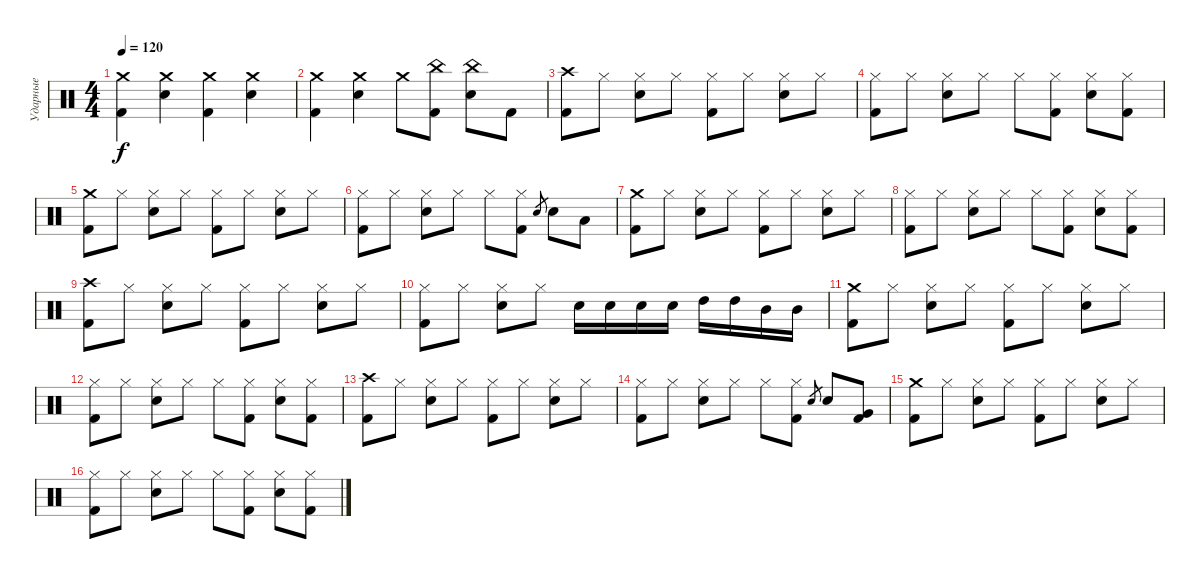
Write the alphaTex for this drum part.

\track ("Ударные" "Ударные") {instrument percussion}
\staff {score}
\articulation defaults
\ts (4 4)
\tempo 120
\clef neutral
\ks c
("Crash medium (hit)" "Kick (hit) 2").4{dy f} ("Crash medium (hit)" "Electric Snare (hit)").4 ("Crash medium (hit)" "Kick (hit) 2").4 ("Crash medium (hit)" "Electric Snare (hit)").4 |
("Crash medium (hit)" "Kick (hit) 2").4 ("Crash medium (hit)" "Electric Snare (hit)").4 "Crash medium (hit)".8 ("China (hit)" "Kick (hit) 2").8 ("China (hit)" "Electric Snare (hit)").8 "Kick (hit) 2".8 |
("Crash high (hit)" "Kick (hit) 2").8 "Hi-Hat (closed)".8 ("Hi-Hat (closed)" "Electric Snare (hit)").8 "Hi-Hat (closed)".8 ("Hi-Hat (closed)" "Kick (hit) 2").8 "Hi-Hat (closed)".8 ("Hi-Hat (closed)" "Electric Snare (hit)").8 "Hi-Hat (closed)".8 |
("Hi-Hat (closed)" "Kick (hit) 2").8 "Hi-Hat (closed)".8 ("Hi-Hat (closed)" "Electric Snare (hit)").8 "Hi-Hat (closed)".8 "Hi-Hat (closed)".8 ("Hi-Hat (closed)" "Kick (hit) 2").8 ("Hi-Hat (closed)" "Electric Snare (hit)").8 ("Hi-Hat (closed)" "Kick (hit) 2").8 |
("Crash medium (hit)" "Kick (hit) 2").8 "Hi-Hat (closed)".8 ("Hi-Hat (closed)" "Electric Snare (hit)").8 "Hi-Hat (closed)".8 ("Hi-Hat (closed)" "Kick (hit) 2").8 "Hi-Hat (closed)".8 ("Hi-Hat (closed)" "Electric Snare (hit)").8 "Hi-Hat (closed)".8 |
("Hi-Hat (closed)" "Kick (hit) 2").8 "Hi-Hat (closed)".8 ("Hi-Hat (closed)" "Electric Snare (hit)").8 "Hi-Hat (closed)".8 "Hi-Hat (closed)".8 ("Hi-Hat (closed)" "Kick (hit) 2").8 "Electric Snare (hit)".8{gr} "Electric Snare (hit)".8 "Low Tom (hit)".8 |
("Crash medium (hit)" "Kick (hit) 2").8 "Hi-Hat (closed)".8 ("Hi-Hat (closed)" "Electric Snare (hit)").8 "Hi-Hat (closed)".8 ("Hi-Hat (closed)" "Kick (hit) 2").8 "Hi-Hat (closed)".8 ("Hi-Hat (closed)" "Electric Snare (hit)").8 "Hi-Hat (closed)".8 |
("Hi-Hat (closed)" "Kick (hit) 2").8 "Hi-Hat (closed)".8 ("Hi-Hat (closed)" "Electric Snare (hit)").8 "Hi-Hat (closed)".8 "Hi-Hat (closed)".8 ("Hi-Hat (closed)" "Kick (hit) 2").8 ("Hi-Hat (closed)" "Electric Snare (hit)").8 ("Hi-Hat (closed)" "Kick (hit) 2").8 |
("Crash high (hit)" "Kick (hit) 2").8 "Hi-Hat (closed)".8 ("Hi-Hat (closed)" "Electric Snare (hit)").8 "Hi-Hat (closed)".8 ("Hi-Hat (closed)" "Kick (hit) 2").8 "Hi-Hat (closed)".8 ("Hi-Hat (closed)" "Electric Snare (hit)").8 "Hi-Hat (closed)".8 |
("Hi-Hat (closed)" "Kick (hit) 2").8 "Hi-Hat (closed)".8 ("Hi-Hat (closed)" "Electric Snare (hit)").8 "Hi-Hat (closed)".8 "Electric Snare (hit)".16 "Electric Snare (hit)".16 "Electric Snare (hit)".16 "Electric Snare (hit)".16 "High Tom (hit)".16 "High Tom (hit)".16 "Mid Tom (hit)".16 "Mid Tom (hit)".16 |
("Crash medium (hit)" "Kick (hit) 2").8 "Hi-Hat (closed)".8 ("Hi-Hat (closed)" "Electric Snare (hit)").8 "Hi-Hat (closed)".8 ("Hi-Hat (closed)" "Kick (hit) 2").8 "Hi-Hat (closed)".8 ("Hi-Hat (closed)" "Electric Snare (hit)").8 "Hi-Hat (closed)".8 |
("Hi-Hat (closed)" "Kick (hit) 2").8 "Hi-Hat (closed)".8 ("Hi-Hat (closed)" "Electric Snare (hit)").8 "Hi-Hat (closed)".8 "Hi-Hat (closed)".8 ("Hi-Hat (closed)" "Kick (hit) 2").8 ("Hi-Hat (closed)" "Electric Snare (hit)").8 ("Hi-Hat (closed)" "Kick (hit) 2").8 |
("Crash high (hit)" "Kick (hit) 2").8 "Hi-Hat (closed)".8 ("Hi-Hat (closed)" "Electric Snare (hit)").8 "Hi-Hat (closed)".8 ("Hi-Hat (closed)" "Kick (hit) 2").8 "Hi-Hat (closed)".8 ("Hi-Hat (closed)" "Electric Snare (hit)").8 "Hi-Hat (closed)".8 |
("Hi-Hat (closed)" "Kick (hit) 2").8 "Hi-Hat (closed)".8 ("Hi-Hat (closed)" "Electric Snare (hit)").8 "Hi-Hat (closed)".8 "Hi-Hat (closed)".8 ("Hi-Hat (closed)" "Kick (hit) 2").8 "Electric Snare (hit)".8{gr} "Electric Snare (hit)".8 ("Very Low Tom (hit)" "Kick (hit) 2").8 |
("Crash medium (hit)" "Kick (hit) 2").8 "Hi-Hat (closed)".8 ("Hi-Hat (closed)" "Electric Snare (hit)").8 "Hi-Hat (closed)".8 ("Hi-Hat (closed)" "Kick (hit) 2").8 "Hi-Hat (closed)".8 ("Hi-Hat (closed)" "Electric Snare (hit)").8 "Hi-Hat (closed)".8 |
("Hi-Hat (closed)" "Kick (hit) 2").8 "Hi-Hat (closed)".8 ("Hi-Hat (closed)" "Electric Snare (hit)").8 "Hi-Hat (closed)".8 "Hi-Hat (closed)".8 ("Hi-Hat (closed)" "Kick (hit) 2").8 ("Hi-Hat (closed)" "Electric Snare (hit)").8 ("Hi-Hat (closed)" "Kick (hit) 2").8
